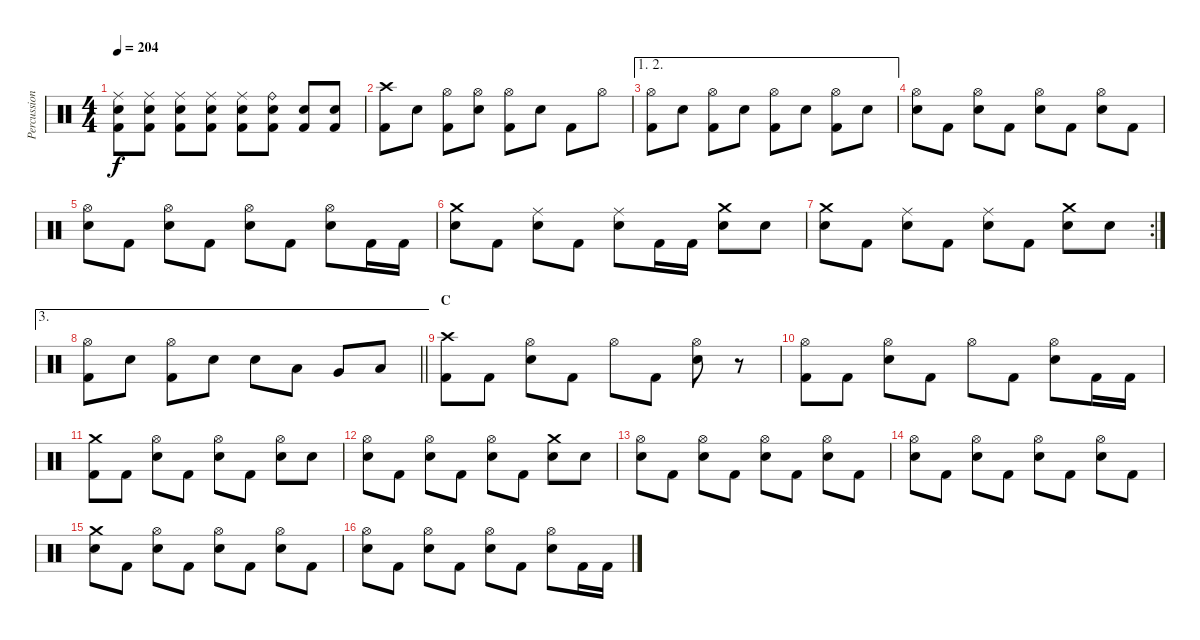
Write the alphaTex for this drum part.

\track ("Percussion" "Percussion") {instrument percussion}
\staff {score}
\articulation defaults
\ts (4 4)
\tempo 204
\clef neutral
\ks c
("Ride (middle)" "Electric Snare (hit)" "Kick (hit) 2").8{dy f} ("Ride (middle)" "Electric Snare (hit)" "Kick (hit) 2").8 ("Ride (middle)" "Electric Snare (hit)" "Kick (hit) 2").8 ("Ride (middle)" "Electric Snare (hit)" "Kick (hit) 2").8 ("Ride (middle)" "Electric Snare (hit)" "Kick (hit) 2").8 ("Ride (bell)" "Electric Snare (hit)" "Kick (hit) 2").8 ("Electric Snare (hit)" "Kick (hit) 2").8 ("Electric Snare (hit)" "Kick (hit) 2").8 |
("Crash high (hit)" "Kick (hit) 2").8 "Electric Snare (hit)".8 ("Hi-Hat (open)" "Kick (hit) 2").8 ("Hi-Hat (open)" "Electric Snare (hit)").8 ("Hi-Hat (open)" "Kick (hit) 2").8 "Electric Snare (hit)".8 "Kick (hit) 2".8 "Hi-Hat (open)".8 |
\ae (1 2)
("Hi-Hat (open)" "Kick (hit) 2").8 "Electric Snare (hit)".8 ("Hi-Hat (open)" "Kick (hit) 2").8 "Electric Snare (hit)".8 ("Hi-Hat (open)" "Kick (hit) 2").8 "Electric Snare (hit)".8 ("Hi-Hat (open)" "Kick (hit) 2").8 "Electric Snare (hit)".8 |
("Hi-Hat (open)" "Electric Snare (hit)").8 "Kick (hit) 2".8 ("Hi-Hat (open)" "Electric Snare (hit)").8 "Kick (hit) 2".8 ("Hi-Hat (open)" "Electric Snare (hit)").8 "Kick (hit) 2".8 ("Hi-Hat (open)" "Electric Snare (hit)").8 "Kick (hit) 2".8 |
("Hi-Hat (open)" "Electric Snare (hit)").8 "Kick (hit) 2".8 ("Hi-Hat (open)" "Electric Snare (hit)").8 "Kick (hit) 2".8 ("Hi-Hat (open)" "Electric Snare (hit)").8 "Kick (hit) 2".8 ("Hi-Hat (open)" "Electric Snare (hit)").8 "Kick (hit) 2".16 "Kick (hit) 2".16 |
("Crash medium (hit)" "Electric Snare (hit)").8 "Kick (hit) 2".8 ("Ride (middle)" "Electric Snare (hit)").8 "Kick (hit) 2".8 ("Ride (middle)" "Electric Snare (hit)").8 "Kick (hit) 2".16 "Kick (hit) 2".16 ("Crash medium (hit)" "Electric Snare (hit)").8 "Electric Snare (hit)".8 |
\rc 2
("Crash medium (hit)" "Electric Snare (hit)").8 "Kick (hit) 2".8 ("Ride (middle)" "Electric Snare (hit)").8 "Kick (hit) 2".8 ("Ride (middle)" "Electric Snare (hit)").8 "Kick (hit) 2".8 ("Crash medium (hit)" "Electric Snare (hit)").8 "Electric Snare (hit)".8 |
\ae 3
\barLineRight lightlight
("Hi-Hat (open)" "Kick (hit) 2").8 "Electric Snare (hit)".8 ("Hi-Hat (open)" "Kick (hit) 2").8 "Electric Snare (hit)".8 "Electric Snare (hit)".8 "Low Tom (hit)".8 "Very Low Tom (hit)".8 "Low Floor Tom (hit)".8 |
\section ("" "C")
("Crash high (hit)" "Kick (hit) 2").8 "Kick (hit) 2".8 ("Hi-Hat (open)" "Electric Snare (hit)").8 "Kick (hit) 2".8 "Hi-Hat (open)".8 "Kick (hit) 2".8 ("Hi-Hat (open)" "Electric Snare (hit)").8 r.8 |
("Hi-Hat (open)" "Kick (hit) 2").8 "Kick (hit) 2".8 ("Hi-Hat (open)" "Electric Snare (hit)").8 "Kick (hit) 2".8 "Hi-Hat (open)".8 "Kick (hit) 2".8 ("Hi-Hat (open)" "Electric Snare (hit)").8 "Kick (hit) 2".16 "Kick (hit) 2".16 |
("Crash medium (hit)" "Kick (hit) 2").8 "Kick (hit) 2".8 ("Hi-Hat (open)" "Electric Snare (hit)").8 "Kick (hit) 2".8 ("Hi-Hat (open)" "Electric Snare (hit)").8 "Kick (hit) 2".8 ("Hi-Hat (open)" "Electric Snare (hit)").8 "Electric Snare (hit)".8 |
("Hi-Hat (open)" "Electric Snare (hit)").8 "Kick (hit) 2".8 ("Hi-Hat (open)" "Electric Snare (hit)").8 "Kick (hit) 2".8 ("Hi-Hat (open)" "Electric Snare (hit)").8 "Kick (hit) 2".8 ("Crash medium (hit)" "Electric Snare (hit)").8 "Electric Snare (hit)".8 |
("Hi-Hat (open)" "Electric Snare (hit)").8 "Kick (hit) 2".8 ("Hi-Hat (open)" "Electric Snare (hit)").8 "Kick (hit) 2".8 ("Hi-Hat (open)" "Electric Snare (hit)").8 "Kick (hit) 2".8 ("Hi-Hat (open)" "Electric Snare (hit)").8 "Kick (hit) 2".8 |
("Hi-Hat (open)" "Electric Snare (hit)").8 "Kick (hit) 2".8 ("Hi-Hat (open)" "Electric Snare (hit)").8 "Kick (hit) 2".8 ("Hi-Hat (open)" "Electric Snare (hit)").8 "Kick (hit) 2".8 ("Hi-Hat (open)" "Electric Snare (hit)").8 "Kick (hit) 2".8 |
("Crash medium (hit)" "Electric Snare (hit)").8 "Kick (hit) 2".8 ("Hi-Hat (open)" "Electric Snare (hit)").8 "Kick (hit) 2".8 ("Hi-Hat (open)" "Electric Snare (hit)").8 "Kick (hit) 2".8 ("Hi-Hat (open)" "Electric Snare (hit)").8 "Kick (hit) 2".8 |
("Hi-Hat (open)" "Electric Snare (hit)").8 "Kick (hit) 2".8 ("Hi-Hat (open)" "Electric Snare (hit)").8 "Kick (hit) 2".8 ("Hi-Hat (open)" "Electric Snare (hit)").8 "Kick (hit) 2".8 ("Hi-Hat (open)" "Electric Snare (hit)").8 "Kick (hit) 2".16 "Kick (hit) 2".16
